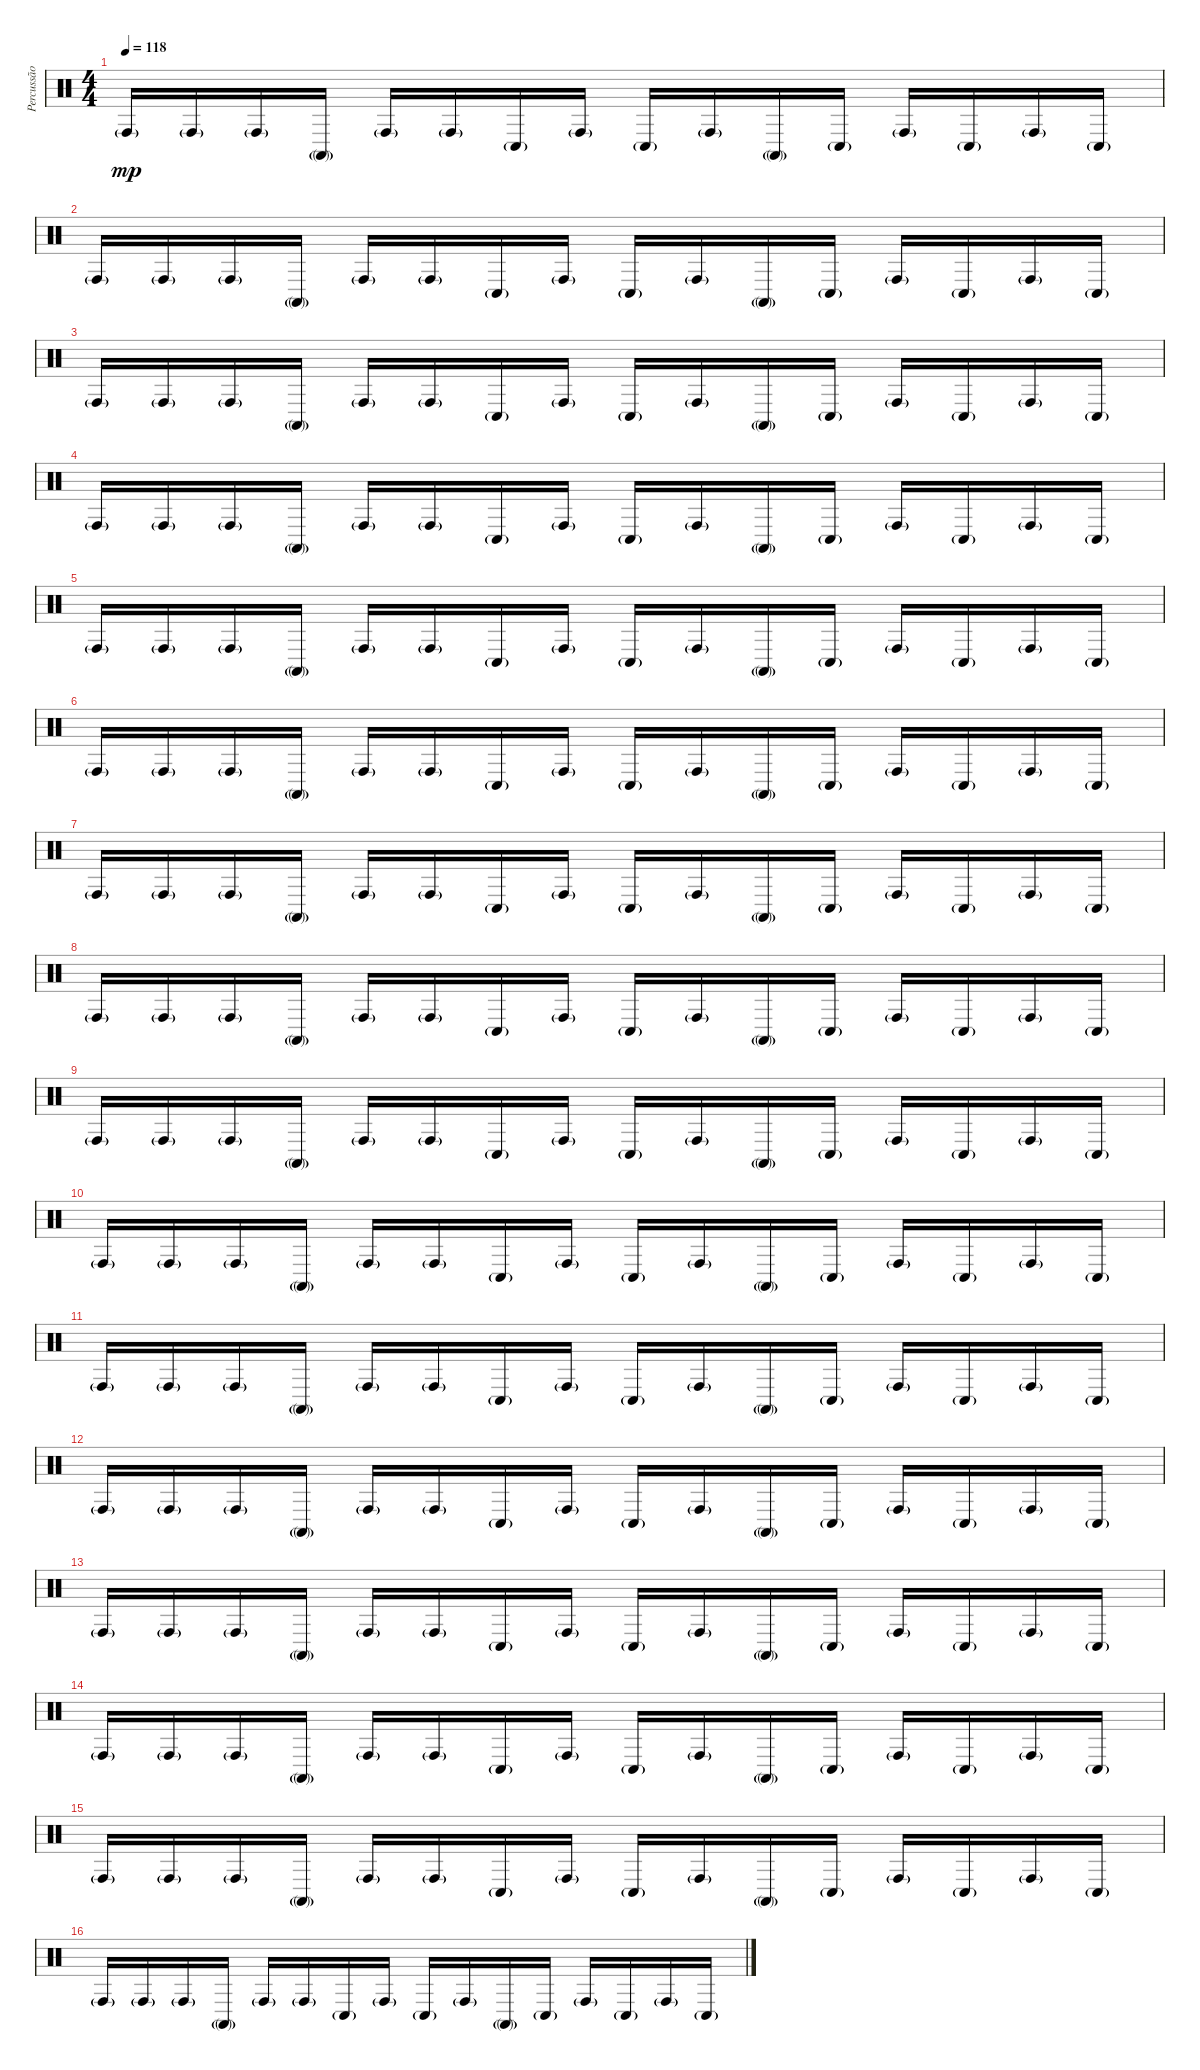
\track ("Percussão" "Percussão") {instrument percussion}
\staff {score}
\articulation defaults
\ts (4 4)
\tempo 118
\clef neutral
\ks c "Conga high (hit)"{g}.16{dy mp} "Conga high (hit)"{g}.16 "Conga high (hit)"{g}.16 "Conga high (mute)"{g}.16 "Conga high (hit)"{g}.16 "Conga high (hit)"{g}.16 "Conga low (hit)"{g}.16 "Conga high (hit)"{g}.16 "Conga low (hit)"{g}.16 "Conga high (hit)"{g}.16 "Conga high (mute)"{g}.16 "Conga low (hit)"{g}.16 "Conga high (hit)"{g}.16 "Conga low (hit)"{g}.16 "Conga high (hit)"{g}.16 "Conga low (hit)"{g}.16
|
"Conga high (hit)"{g}.16 "Conga high (hit)"{g}.16 "Conga high (hit)"{g}.16 "Conga high (mute)"{g}.16 "Conga high (hit)"{g}.16 "Conga high (hit)"{g}.16 "Conga low (hit)"{g}.16 "Conga high (hit)"{g}.16 "Conga low (hit)"{g}.16 "Conga high (hit)"{g}.16 "Conga high (mute)"{g}.16 "Conga low (hit)"{g}.16 "Conga high (hit)"{g}.16 "Conga low (hit)"{g}.16 "Conga high (hit)"{g}.16 "Conga low (hit)"{g}.16 |
"Conga high (hit)"{g}.16 "Conga high (hit)"{g}.16 "Conga high (hit)"{g}.16 "Conga high (mute)"{g}.16 "Conga high (hit)"{g}.16 "Conga high (hit)"{g}.16 "Conga low (hit)"{g}.16 "Conga high (hit)"{g}.16 "Conga low (hit)"{g}.16 "Conga high (hit)"{g}.16 "Conga high (mute)"{g}.16 "Conga low (hit)"{g}.16 "Conga high (hit)"{g}.16 "Conga low (hit)"{g}.16 "Conga high (hit)"{g}.16 "Conga low (hit)"{g}.16 |
"Conga high (hit)"{g}.16 "Conga high (hit)"{g}.16 "Conga high (hit)"{g}.16 "Conga high (mute)"{g}.16 "Conga high (hit)"{g}.16 "Conga high (hit)"{g}.16 "Conga low (hit)"{g}.16 "Conga high (hit)"{g}.16 "Conga low (hit)"{g}.16 "Conga high (hit)"{g}.16 "Conga high (mute)"{g}.16 "Conga low (hit)"{g}.16 "Conga high (hit)"{g}.16 "Conga low (hit)"{g}.16 "Conga high (hit)"{g}.16 "Conga low (hit)"{g}.16 |
"Conga high (hit)"{g}.16 "Conga high (hit)"{g}.16 "Conga high (hit)"{g}.16 "Conga high (mute)"{g}.16 "Conga high (hit)"{g}.16 "Conga high (hit)"{g}.16 "Conga low (hit)"{g}.16 "Conga high (hit)"{g}.16 "Conga low (hit)"{g}.16 "Conga high (hit)"{g}.16 "Conga high (mute)"{g}.16 "Conga low (hit)"{g}.16 "Conga high (hit)"{g}.16 "Conga low (hit)"{g}.16 "Conga high (hit)"{g}.16 "Conga low (hit)"{g}.16 |
"Conga high (hit)"{g}.16 "Conga high (hit)"{g}.16 "Conga high (hit)"{g}.16 "Conga high (mute)"{g}.16 "Conga high (hit)"{g}.16 "Conga high (hit)"{g}.16 "Conga low (hit)"{g}.16 "Conga high (hit)"{g}.16 "Conga low (hit)"{g}.16 "Conga high (hit)"{g}.16 "Conga high (mute)"{g}.16 "Conga low (hit)"{g}.16 "Conga high (hit)"{g}.16 "Conga low (hit)"{g}.16 "Conga high (hit)"{g}.16 "Conga low (hit)"{g}.16 |
"Conga high (hit)"{g}.16 "Conga high (hit)"{g}.16 "Conga high (hit)"{g}.16 "Conga high (mute)"{g}.16 "Conga high (hit)"{g}.16 "Conga high (hit)"{g}.16 "Conga low (hit)"{g}.16 "Conga high (hit)"{g}.16 "Conga low (hit)"{g}.16 "Conga high (hit)"{g}.16 "Conga high (mute)"{g}.16 "Conga low (hit)"{g}.16 "Conga high (hit)"{g}.16 "Conga low (hit)"{g}.16 "Conga high (hit)"{g}.16 "Conga low (hit)"{g}.16 |
"Conga high (hit)"{g}.16 "Conga high (hit)"{g}.16 "Conga high (hit)"{g}.16 "Conga high (mute)"{g}.16 "Conga high (hit)"{g}.16 "Conga high (hit)"{g}.16 "Conga low (hit)"{g}.16 "Conga high (hit)"{g}.16 "Conga low (hit)"{g}.16 "Conga high (hit)"{g}.16 "Conga high (mute)"{g}.16 "Conga low (hit)"{g}.16 "Conga high (hit)"{g}.16 "Conga low (hit)"{g}.16 "Conga high (hit)"{g}.16 "Conga low (hit)"{g}.16 |
"Conga high (hit)"{g}.16 "Conga high (hit)"{g}.16 "Conga high (hit)"{g}.16 "Conga high (mute)"{g}.16 "Conga high (hit)"{g}.16 "Conga high (hit)"{g}.16 "Conga low (hit)"{g}.16 "Conga high (hit)"{g}.16 "Conga low (hit)"{g}.16 "Conga high (hit)"{g}.16 "Conga high (mute)"{g}.16 "Conga low (hit)"{g}.16 "Conga high (hit)"{g}.16 "Conga low (hit)"{g}.16 "Conga high (hit)"{g}.16 "Conga low (hit)"{g}.16 |
"Conga high (hit)"{g}.16 "Conga high (hit)"{g}.16 "Conga high (hit)"{g}.16 "Conga high (mute)"{g}.16 "Conga high (hit)"{g}.16 "Conga high (hit)"{g}.16 "Conga low (hit)"{g}.16 "Conga high (hit)"{g}.16 "Conga low (hit)"{g}.16 "Conga high (hit)"{g}.16 "Conga high (mute)"{g}.16 "Conga low (hit)"{g}.16 "Conga high (hit)"{g}.16 "Conga low (hit)"{g}.16 "Conga high (hit)"{g}.16 "Conga low (hit)"{g}.16 |
"Conga high (hit)"{g}.16 "Conga high (hit)"{g}.16 "Conga high (hit)"{g}.16 "Conga high (mute)"{g}.16 "Conga high (hit)"{g}.16 "Conga high (hit)"{g}.16 "Conga low (hit)"{g}.16 "Conga high (hit)"{g}.16 "Conga low (hit)"{g}.16 "Conga high (hit)"{g}.16 "Conga high (mute)"{g}.16 "Conga low (hit)"{g}.16 "Conga high (hit)"{g}.16 "Conga low (hit)"{g}.16 "Conga high (hit)"{g}.16 "Conga low (hit)"{g}.16 |
"Conga high (hit)"{g}.16 "Conga high (hit)"{g}.16 "Conga high (hit)"{g}.16 "Conga high (mute)"{g}.16 "Conga high (hit)"{g}.16 "Conga high (hit)"{g}.16 "Conga low (hit)"{g}.16 "Conga high (hit)"{g}.16 "Conga low (hit)"{g}.16 "Conga high (hit)"{g}.16 "Conga high (mute)"{g}.16 "Conga low (hit)"{g}.16 "Conga high (hit)"{g}.16 "Conga low (hit)"{g}.16 "Conga high (hit)"{g}.16 "Conga low (hit)"{g}.16 |
"Conga high (hit)"{g}.16 "Conga high (hit)"{g}.16 "Conga high (hit)"{g}.16 "Conga high (mute)"{g}.16 "Conga high (hit)"{g}.16 "Conga high (hit)"{g}.16 "Conga low (hit)"{g}.16 "Conga high (hit)"{g}.16 "Conga low (hit)"{g}.16 "Conga high (hit)"{g}.16 "Conga high (mute)"{g}.16 "Conga low (hit)"{g}.16 "Conga high (hit)"{g}.16 "Conga low (hit)"{g}.16 "Conga high (hit)"{g}.16 "Conga low (hit)"{g}.16 |
"Conga high (hit)"{g}.16 "Conga high (hit)"{g}.16 "Conga high (hit)"{g}.16 "Conga high (mute)"{g}.16 "Conga high (hit)"{g}.16 "Conga high (hit)"{g}.16 "Conga low (hit)"{g}.16 "Conga high (hit)"{g}.16 "Conga low (hit)"{g}.16 "Conga high (hit)"{g}.16 "Conga high (mute)"{g}.16 "Conga low (hit)"{g}.16 "Conga high (hit)"{g}.16 "Conga low (hit)"{g}.16 "Conga high (hit)"{g}.16 "Conga low (hit)"{g}.16 |
"Conga high (hit)"{g}.16 "Conga high (hit)"{g}.16 "Conga high (hit)"{g}.16 "Conga high (mute)"{g}.16 "Conga high (hit)"{g}.16 "Conga high (hit)"{g}.16 "Conga low (hit)"{g}.16 "Conga high (hit)"{g}.16 "Conga low (hit)"{g}.16 "Conga high (hit)"{g}.16 "Conga high (mute)"{g}.16 "Conga low (hit)"{g}.16 "Conga high (hit)"{g}.16 "Conga low (hit)"{g}.16 "Conga high (hit)"{g}.16 "Conga low (hit)"{g}.16 |
"Conga high (hit)"{g}.16 "Conga high (hit)"{g}.16 "Conga high (hit)"{g}.16 "Conga high (mute)"{g}.16 "Conga high (hit)"{g}.16 "Conga high (hit)"{g}.16 "Conga low (hit)"{g}.16 "Conga high (hit)"{g}.16 "Conga low (hit)"{g}.16 "Conga high (hit)"{g}.16 "Conga high (mute)"{g}.16 "Conga low (hit)"{g}.16 "Conga high (hit)"{g}.16 "Conga low (hit)"{g}.16 "Conga high (hit)"{g}.16 "Conga low (hit)"{g}.16
